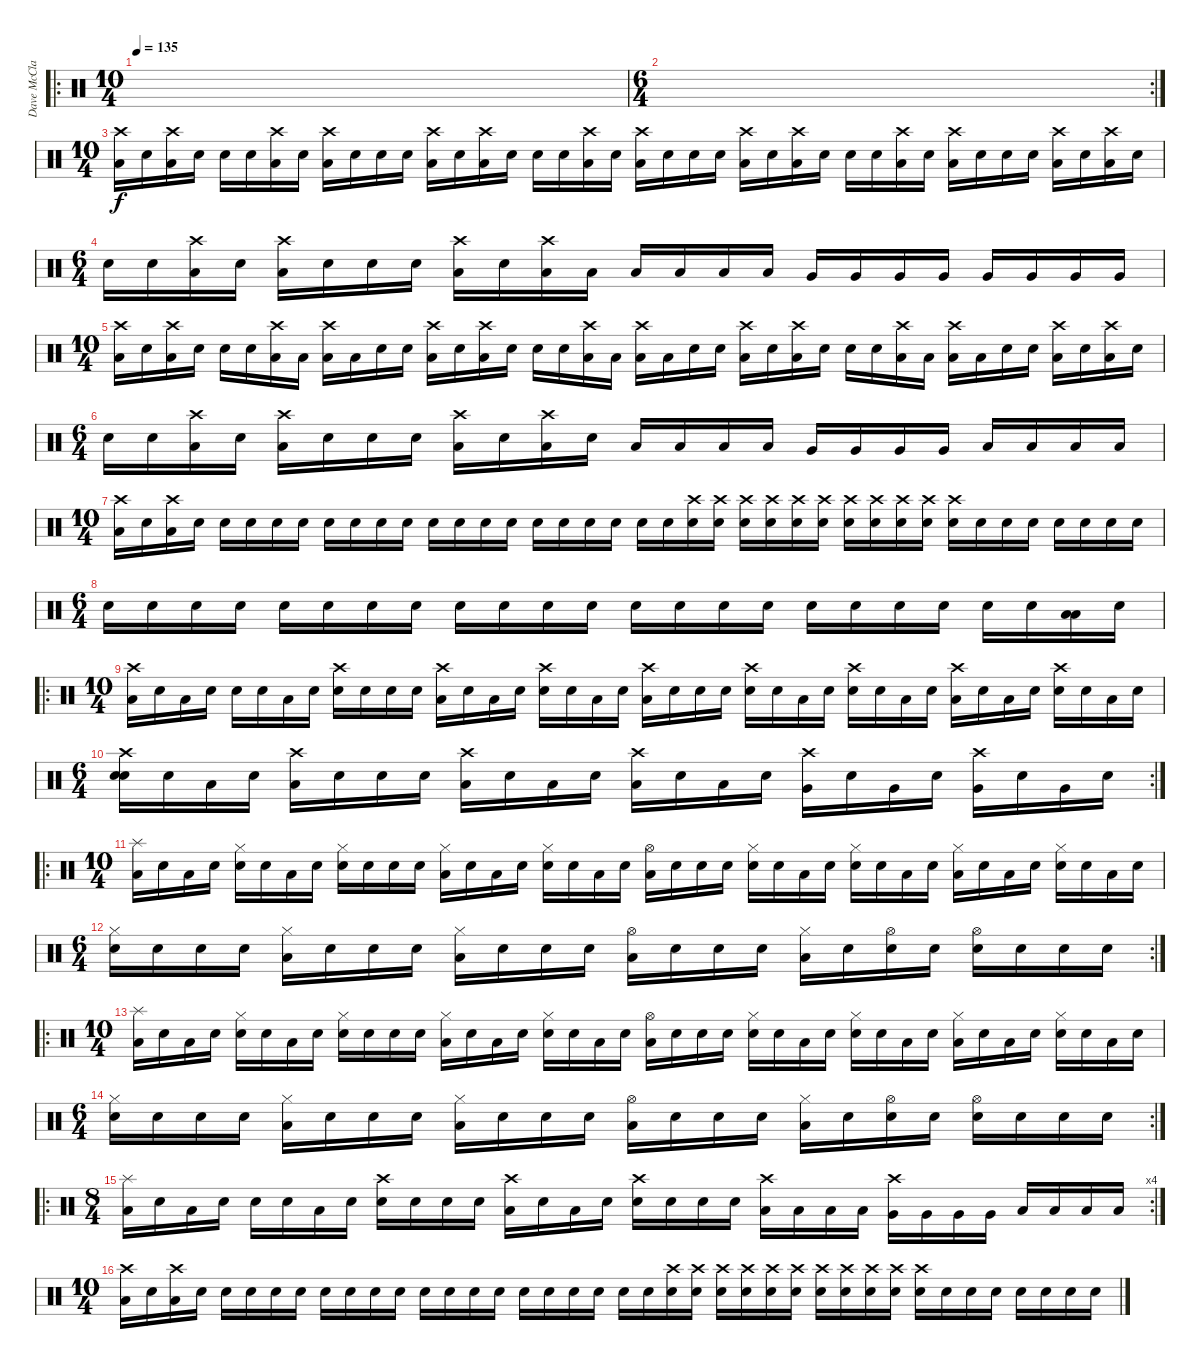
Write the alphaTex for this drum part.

\track ("Dave McClain [Drums]" "Dave McCla") {instrument percussion}
\staff {score}
\articulation defaults
\ro
\ts (10 4)
\tempo 135
\clef neutral
\ks c
|
\rc 2
\ts (6 4)
|
\ts (10 4)
("Crash high (hit)" "Low Floor Tom (hit)").16 "Snare (hit)".16 ("Crash high (hit)" "Low Floor Tom (hit)").16 "Snare (hit)".16 "Snare (hit)".16 "Snare (hit)".16 ("Crash high (hit)" "Low Floor Tom (hit)").16 "Snare (hit)".16 ("Crash high (hit)" "Low Floor Tom (hit)").16 "Snare (hit)".16 "Snare (hit)".16 "Snare (hit)".16 ("Crash high (hit)" "Low Floor Tom (hit)").16 "Snare (hit)".16 ("Crash high (hit)" "Low Floor Tom (hit)").16 "Snare (hit)".16 "Snare (hit)".16 "Snare (hit)".16 ("Crash high (hit)" "Low Floor Tom (hit)").16 "Snare (hit)".16 ("Crash high (hit)" "Low Floor Tom (hit)").16 "Snare (hit)".16 "Snare (hit)".16 "Snare (hit)".16 ("Crash high (hit)" "Low Floor Tom (hit)").16 "Snare (hit)".16 ("Crash high (hit)" "Low Floor Tom (hit)").16 "Snare (hit)".16 "Snare (hit)".16 "Snare (hit)".16 ("Crash high (hit)" "Low Floor Tom (hit)").16 "Snare (hit)".16 ("Crash high (hit)" "Low Floor Tom (hit)").16 "Snare (hit)".16 "Snare (hit)".16 "Snare (hit)".16 ("Crash high (hit)" "Low Floor Tom (hit)").16 "Snare (hit)".16 ("Crash high (hit)" "Low Floor Tom (hit)").16 "Snare (hit)".16 |
\ts (6 4)
"Snare (hit)".16 "Snare (hit)".16 ("Crash high (hit)" "Low Floor Tom (hit)").16 "Snare (hit)".16 ("Crash high (hit)" "Low Floor Tom (hit)").16 "Snare (hit)".16 "Snare (hit)".16 "Snare (hit)".16 ("Crash high (hit)" "Low Floor Tom (hit)").16 "Snare (hit)".16 ("Crash high (hit)" "Low Floor Tom (hit)").16 "Low Tom (hit)".16 "Low Tom (hit)".16 "Low Tom (hit)".16 "Low Tom (hit)".16 "Low Tom (hit)".16 "Very Low Tom (hit)".16 "Very Low Tom (hit)".16 "Very Low Tom (hit)".16 "Very Low Tom (hit)".16 "Very Low Tom (hit)".16 "Very Low Tom (hit)".16 "Very Low Tom (hit)".16 "Very Low Tom (hit)".16 |
\ts (10 4)
("Crash high (hit)" "Low Floor Tom (hit)").16 "Snare (hit)".16 ("Crash high (hit)" "Low Floor Tom (hit)").16 "Snare (hit)".16 "Snare (hit)".16 "Snare (hit)".16 ("Crash high (hit)" "Low Floor Tom (hit)").16 "Low Floor Tom (hit)".16 ("Crash high (hit)" "Low Floor Tom (hit)").16 "Low Floor Tom (hit)".16 "Snare (hit)".16 "Snare (hit)".16 ("Crash high (hit)" "Low Floor Tom (hit)").16 "Snare (hit)".16 ("Crash high (hit)" "Low Floor Tom (hit)").16 "Snare (hit)".16 "Snare (hit)".16 "Snare (hit)".16 ("Crash high (hit)" "Low Floor Tom (hit)").16 "Low Floor Tom (hit)".16 ("Crash high (hit)" "Low Floor Tom (hit)").16 "Low Floor Tom (hit)".16 "Snare (hit)".16 "Snare (hit)".16 ("Crash high (hit)" "Low Floor Tom (hit)").16 "Snare (hit)".16 ("Crash high (hit)" "Low Floor Tom (hit)").16 "Snare (hit)".16 "Snare (hit)".16 "Snare (hit)".16 ("Crash high (hit)" "Low Floor Tom (hit)").16 "Low Floor Tom (hit)".16 ("Crash high (hit)" "Low Floor Tom (hit)").16 "Low Floor Tom (hit)".16 "Snare (hit)".16 "Snare (hit)".16 ("Crash high (hit)" "Low Floor Tom (hit)").16 "Snare (hit)".16 ("Crash high (hit)" "Low Floor Tom (hit)").16 "Snare (hit)".16 |
\ts (6 4)
"Snare (hit)".16 "Snare (hit)".16 ("Crash high (hit)" "Low Floor Tom (hit)").16 "Snare (hit)".16 ("Crash high (hit)" "Low Floor Tom (hit)").16 "Snare (hit)".16 "Snare (hit)".16 "Snare (hit)".16 ("Crash high (hit)" "Low Floor Tom (hit)").16 "Snare (hit)".16 ("Crash high (hit)" "Low Floor Tom (hit)").16 "Snare (hit)".16 "Low Tom (hit)".16 "Low Tom (hit)".16 "Low Tom (hit)".16 "Low Tom (hit)".16 "Very Low Tom (hit)".16 "Very Low Tom (hit)".16 "Very Low Tom (hit)".16 "Very Low Tom (hit)".16 "Low Floor Tom (hit)".16 "Low Floor Tom (hit)".16 "Low Floor Tom (hit)".16 "Low Floor Tom (hit)".16 |
\ts (10 4)
("Crash high (hit)" "Low Floor Tom (hit)").16 "Snare (hit)".16 ("Crash high (hit)" "Low Floor Tom (hit)").16 "Snare (hit)".16 "Snare (hit)".16 "Snare (hit)".16 "Snare (hit)".16 "Snare (hit)".16 "Snare (hit)".16 "Snare (hit)".16 "Snare (hit)".16 "Snare (hit)".16 "Snare (hit)".16 "Snare (hit)".16 "Snare (hit)".16 "Snare (hit)".16 "Snare (hit)".16 "Snare (hit)".16 "Snare (hit)".16 "Snare (hit)".16 "Snare (hit)".16 "Snare (hit)".16{volume 0} ("Crash high (hit)" "Snare (hit)").16{volume 13} ("Crash high (hit)" "Snare (hit)").16 ("Crash high (hit)" "Snare (hit)").16 ("Crash high (hit)" "Snare (hit)").16 ("Crash high (hit)" "Snare (hit)").16 ("Crash high (hit)" "Snare (hit)").16 ("Crash high (hit)" "Snare (hit)").16 ("Crash high (hit)" "Snare (hit)").16 ("Crash high (hit)" "Snare (hit)").16 ("Crash high (hit)" "Snare (hit)").16 ("Crash high (hit)" "Snare (hit)").16 "Snare (hit)".16 "Snare (hit)".16 "Snare (hit)".16 "Snare (hit)".16 "Snare (hit)".16 "Snare (hit)".16 "Snare (hit)".16 |
\ts (6 4)
"Snare (hit)".16 "Snare (hit)".16 "Snare (hit)".16 "Snare (hit)".16 "Snare (hit)".16 "Snare (hit)".16 "Snare (hit)".16 "Snare (hit)".16 "Snare (hit)".16 "Snare (hit)".16 "Snare (hit)".16 "Snare (hit)".16 "Snare (hit)".16 "Snare (hit)".16 "Snare (hit)".16 "Snare (hit)".16 "Snare (hit)".16 "Snare (hit)".16 "Snare (hit)".16 "Snare (hit)".16 "Snare (hit)".16 "Snare (hit)".16 ("Low Floor Tom (hit)" "Low Floor Tom (hit)").16 "Snare (hit)".16 |
\ro
\ts (10 4)
("Crash high (hit)" "Low Floor Tom (hit)").16 "Snare (hit)".16 "Low Floor Tom (hit)".16 "Snare (hit)".16 "Snare (hit)".16 "Snare (hit)".16 "Low Floor Tom (hit)".16 "Snare (hit)".16 ("Crash high (hit)" "Electric Snare (hit)").16 "Snare (hit)".16 "Snare (hit)".16 "Snare (hit)".16 ("Crash high (hit)" "Low Floor Tom (hit)").16 "Snare (hit)".16 "Low Floor Tom (hit)".16 "Snare (hit)".16 ("Crash high (hit)" "Snare (hit)").16 "Snare (hit)".16 "Low Floor Tom (hit)".16 "Snare (hit)".16 ("Crash high (hit)" "Low Floor Tom (hit)").16 "Snare (hit)".16 "Snare (hit)".16 "Snare (hit)".16 ("Crash high (hit)" "Electric Snare (hit)").16 "Snare (hit)".16 "Low Floor Tom (hit)".16 "Snare (hit)".16 ("Crash high (hit)" "Snare (hit)").16 "Snare (hit)".16 "Low Floor Tom (hit)".16 "Snare (hit)".16 ("Crash high (hit)" "Low Floor Tom (hit)").16 "Snare (hit)".16 "Low Floor Tom (hit)".16 "Snare (hit)".16 ("Crash high (hit)" "Snare (hit)").16 "Snare (hit)".16 "Low Floor Tom (hit)".16 "Snare (hit)".16 |
\rc 2
\ts (6 4)
("Crash high (hit)" "Electric Snare (hit)" "Snare (hit)").16 "Snare (hit)".16 "Low Floor Tom (hit)".16 "Snare (hit)".16 ("Crash high (hit)" "Low Floor Tom (hit)").16 "Snare (hit)".16 "Snare (hit)".16 "Snare (hit)".16 ("Crash high (hit)" "Low Floor Tom (hit)").16 "Snare (hit)".16 "Low Floor Tom (hit)".16 "Snare (hit)".16 ("Crash high (hit)" "Low Tom (hit)").16 "Snare (hit)".16 "Low Tom (hit)".16 "Snare (hit)".16 ("Crash high (hit)" "Very Low Tom (hit)").16 "Snare (hit)".16 "Very Low Tom (hit)".16 "Snare (hit)".16 ("Crash high (hit)" "Very Low Tom (hit)").16 "Snare (hit)".16 "Very Low Tom (hit)".16 "Snare (hit)".16 |
\ro
\ts (10 4)
("Splash (hit)" "Low Floor Tom (hit)").16 "Snare (hit)".16 "Low Floor Tom (hit)".16 "Snare (hit)".16 ("Hi-Hat (closed)" "Snare (hit)").16 "Snare (hit)".16 "Low Floor Tom (hit)".16 "Snare (hit)".16 ("Hi-Hat (closed)" "Electric Snare (hit)").16 "Snare (hit)".16 "Snare (hit)".16 "Snare (hit)".16 ("Hi-Hat (closed)" "Low Floor Tom (hit)").16 "Snare (hit)".16 "Low Floor Tom (hit)".16 "Snare (hit)".16 ("Hi-Hat (closed)" "Snare (hit)").16 "Snare (hit)".16 "Low Floor Tom (hit)".16 "Snare (hit)".16 ("Hi-Hat (open)" "Low Floor Tom (hit)").16 "Snare (hit)".16 "Snare (hit)".16 "Snare (hit)".16 ("Hi-Hat (closed)" "Electric Snare (hit)").16 "Snare (hit)".16 "Low Floor Tom (hit)".16 "Snare (hit)".16 ("Hi-Hat (closed)" "Snare (hit)").16 "Snare (hit)".16 "Low Floor Tom (hit)".16 "Snare (hit)".16 ("Hi-Hat (closed)" "Low Floor Tom (hit)").16 "Snare (hit)".16 "Low Floor Tom (hit)".16 "Snare (hit)".16 ("Hi-Hat (closed)" "Snare (hit)").16 "Snare (hit)".16 "Low Floor Tom (hit)".16 "Snare (hit)".16 |
\rc 2
\ts (6 4)
("Hi-Hat (closed)" "Electric Snare (hit)").16 "Snare (hit)".16 "Snare (hit)".16 "Snare (hit)".16 ("Hi-Hat (closed)" "Low Floor Tom (hit)").16 "Snare (hit)".16 "Snare (hit)".16 "Snare (hit)".16 ("Hi-Hat (closed)" "Low Floor Tom (hit)").16 "Snare (hit)".16 "Snare (hit)".16 "Snare (hit)".16 ("Hi-Hat (open)" "Low Floor Tom (hit)").16 "Snare (hit)".16 "Electric Snare (hit)".16 "Snare (hit)".16 ("Hi-Hat (closed)" "Low Floor Tom (hit)").16 "Snare (hit)".16 ("Hi-Hat (open)" "Electric Snare (hit)").16 "Snare (hit)".16 ("Hi-Hat (open)" "Electric Snare (hit)").16 "Snare (hit)".16 "Electric Snare (hit)".16 "Snare (hit)".16 |
\ro
\ts (10 4)
("Splash (hit)" "Low Floor Tom (hit)").16 "Snare (hit)".16 "Low Floor Tom (hit)".16 "Snare (hit)".16 ("Hi-Hat (closed)" "Snare (hit)").16 "Snare (hit)".16 "Low Floor Tom (hit)".16 "Snare (hit)".16 ("Hi-Hat (closed)" "Electric Snare (hit)").16 "Snare (hit)".16 "Snare (hit)".16 "Snare (hit)".16 ("Hi-Hat (closed)" "Low Floor Tom (hit)").16 "Snare (hit)".16 "Low Floor Tom (hit)".16 "Snare (hit)".16 ("Hi-Hat (closed)" "Snare (hit)").16 "Snare (hit)".16 "Low Floor Tom (hit)".16 "Snare (hit)".16 ("Hi-Hat (open)" "Low Floor Tom (hit)").16 "Snare (hit)".16 "Snare (hit)".16 "Snare (hit)".16 ("Hi-Hat (closed)" "Electric Snare (hit)").16 "Snare (hit)".16 "Low Floor Tom (hit)".16 "Snare (hit)".16 ("Hi-Hat (closed)" "Snare (hit)").16 "Snare (hit)".16 "Low Floor Tom (hit)".16 "Snare (hit)".16 ("Hi-Hat (closed)" "Low Floor Tom (hit)").16 "Snare (hit)".16 "Low Floor Tom (hit)".16 "Snare (hit)".16 ("Hi-Hat (closed)" "Snare (hit)").16 "Snare (hit)".16 "Low Floor Tom (hit)".16 "Snare (hit)".16 |
\rc 2
\ts (6 4)
("Hi-Hat (closed)" "Electric Snare (hit)").16 "Snare (hit)".16 "Snare (hit)".16 "Snare (hit)".16 ("Hi-Hat (closed)" "Low Floor Tom (hit)").16 "Snare (hit)".16 "Snare (hit)".16 "Snare (hit)".16 ("Hi-Hat (closed)" "Low Floor Tom (hit)").16 "Snare (hit)".16 "Snare (hit)".16 "Snare (hit)".16 ("Hi-Hat (open)" "Low Floor Tom (hit)").16 "Snare (hit)".16 "Electric Snare (hit)".16 "Snare (hit)".16 ("Hi-Hat (closed)" "Low Floor Tom (hit)").16 "Snare (hit)".16 ("Hi-Hat (open)" "Electric Snare (hit)").16 "Snare (hit)".16 ("Hi-Hat (open)" "Electric Snare (hit)").16 "Snare (hit)".16 "Electric Snare (hit)".16 "Snare (hit)".16 |
\ro
\rc 4
\ts (8 4)
("Splash (hit)" "Low Floor Tom (hit)").16 "Snare (hit)".16 "Low Floor Tom (hit)".16 "Snare (hit)".16 "Snare (hit)".16 "Snare (hit)".16 "Low Floor Tom (hit)".16 "Snare (hit)".16 ("Crash high (hit)" "Electric Snare (hit)").16 "Snare (hit)".16 "Electric Snare (hit)".16 "Snare (hit)".16 ("Crash high (hit)" "Low Floor Tom (hit)").16 "Snare (hit)".16 "Low Floor Tom (hit)".16 "Snare (hit)".16 ("Crash high (hit)" "Snare (hit)").16 "Snare (hit)".16 "Snare (hit)".16 "Snare (hit)".16 ("Crash high (hit)" "Low Tom (hit)").16 "Low Tom (hit)".16 "Low Tom (hit)".16 "Low Tom (hit)".16 ("Crash high (hit)" "Very Low Tom (hit)").16 "Very Low Tom (hit)".16 "Very Low Tom (hit)".16 "Very Low Tom (hit)".16 "Low Floor Tom (hit)".16 "Low Floor Tom (hit)".16 "Low Floor Tom (hit)".16 "Low Floor Tom (hit)".16 |
\ts (10 4)
("Crash high (hit)" "Low Floor Tom (hit)").16 "Snare (hit)".16 ("Crash high (hit)" "Low Floor Tom (hit)").16 "Snare (hit)".16 "Snare (hit)".16 "Snare (hit)".16 "Snare (hit)".16 "Snare (hit)".16 "Snare (hit)".16 "Snare (hit)".16 "Snare (hit)".16 "Snare (hit)".16 "Snare (hit)".16 "Snare (hit)".16 "Snare (hit)".16 "Snare (hit)".16 "Snare (hit)".16 "Snare (hit)".16 "Snare (hit)".16 "Snare (hit)".16 "Snare (hit)".16 "Snare (hit)".16{volume 0} ("Crash high (hit)" "Snare (hit)").16{volume 13} ("Crash high (hit)" "Snare (hit)").16 ("Crash high (hit)" "Snare (hit)").16 ("Crash high (hit)" "Snare (hit)").16 ("Crash high (hit)" "Snare (hit)").16 ("Crash high (hit)" "Snare (hit)").16 ("Crash high (hit)" "Snare (hit)").16 ("Crash high (hit)" "Snare (hit)").16 ("Crash high (hit)" "Snare (hit)").16 ("Crash high (hit)" "Snare (hit)").16 ("Crash high (hit)" "Snare (hit)").16 "Snare (hit)".16 "Snare (hit)".16 "Snare (hit)".16 "Snare (hit)".16 "Snare (hit)".16 "Snare (hit)".16 "Snare (hit)".16
